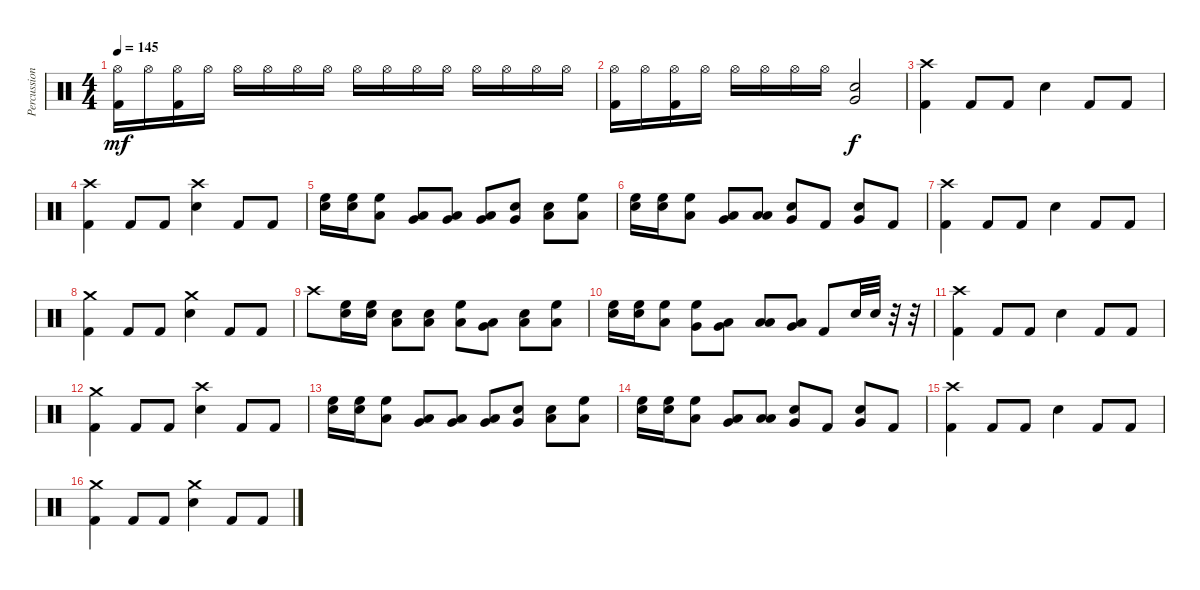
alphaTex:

\track ("Percussion" "Percussion") {instrument percussion}
\staff {score}
\articulation defaults
\ts (4 4)
\tempo 145
\clef neutral
\ks c
("Hi-Hat (open)" "Kick (hit) 2").16{dy mf} "Hi-Hat (open)".16 ("Hi-Hat (open)" "Kick (hit) 2").16 "Hi-Hat (open)".16 "Hi-Hat (open)".16 "Hi-Hat (open)".16 "Hi-Hat (open)".16 "Hi-Hat (open)".16 "Hi-Hat (open)".16 "Hi-Hat (open)".16 "Hi-Hat (open)".16 "Hi-Hat (open)".16 "Hi-Hat (open)".16 "Hi-Hat (open)".16 "Hi-Hat (open)".16 "Hi-Hat (open)".16 |
("Hi-Hat (open)" "Kick (hit) 2").16 "Hi-Hat (open)".16 ("Hi-Hat (open)" "Kick (hit) 2").16 "Hi-Hat (open)".16 "Hi-Hat (open)".16 "Hi-Hat (open)".16 "Hi-Hat (open)".16 "Hi-Hat (open)".16 ("Very Low Tom (hit)" "Snare (hit) 2").2{dy f} |
("Crash high (hit)" "Kick (hit) 2").4 "Kick (hit) 2".8 "Kick (hit) 2".8 "Snare (hit) 2".4 "Kick (hit) 2".8 "Kick (hit) 2".8 |
("Crash high (hit)" "Kick (hit) 2").4 "Kick (hit) 2".8 "Kick (hit) 2".8 ("Crash high (hit)" "Snare (hit) 2").4 "Kick (hit) 2".8 "Kick (hit) 2".8 |
("Snare (hit) 2" "High Floor Tom (hit)").16 ("Snare (hit) 2" "High Floor Tom (hit)").16 ("Low Tom (hit)" "High Floor Tom (hit)").8 ("Very Low Tom (hit)" "Low Tom (hit)").8 ("Low Tom (hit)" "Very Low Tom (hit)").8 ("Low Tom (hit)" "Very Low Tom (hit)").8 ("Snare (hit) 2" "Very Low Tom (hit)").8 ("Snare (hit) 2" "Low Tom (hit)").8 ("Low Tom (hit)" "High Floor Tom (hit)").8 |
("Snare (hit) 2" "High Floor Tom (hit)").16 ("Snare (hit) 2" "High Floor Tom (hit)").16 ("Low Tom (hit)" "High Floor Tom (hit)").8 ("Low Tom (hit)" "Very Low Tom (hit)").8 ("Low Tom (hit)" "Low Floor Tom (hit)").8 ("Snare (hit) 2" "Very Low Tom (hit)").8 "Kick (hit) 2".8 ("Snare (hit) 2" "Very Low Tom (hit)").8 "Kick (hit) 2".8 |
("Crash high (hit)" "Kick (hit) 2").4 "Kick (hit) 2".8 "Kick (hit) 2".8 "Snare (hit) 2".4 "Kick (hit) 2".8 "Kick (hit) 2".8 |
("Crash medium (hit)" "Kick (hit) 2").4 "Kick (hit) 2".8 "Kick (hit) 2".8 ("Crash medium (hit)" "Snare (hit) 2").4 "Kick (hit) 2".8 "Kick (hit) 2".8 |
"Crash high (hit)".8 ("High Floor Tom (hit)" "Snare (hit) 2").16 ("High Floor Tom (hit)" "Snare (hit) 2").16 ("Low Tom (hit)" "Snare (hit) 2").8 ("Low Tom (hit)" "Snare (hit) 2").8 ("High Floor Tom (hit)" "Low Floor Tom (hit)").8 ("Low Tom (hit)" "Very Low Tom (hit)").8 ("Low Floor Tom (hit)" "Snare (hit) 2").8 ("High Floor Tom (hit)" "Low Tom (hit)").8 |
("High Floor Tom (hit)" "Snare (hit) 2").16 ("High Floor Tom (hit)" "Snare (hit) 2").16 ("High Floor Tom (hit)" "Low Tom (hit)").8 ("Very Low Tom (hit)" "High Floor Tom (hit)").8 ("Very Low Tom (hit)" "Low Tom (hit)").8 ("Low Tom (hit)" "Low Floor Tom (hit)").8 ("Very Low Tom (hit)" "Low Floor Tom (hit)").8 "Kick (hit) 2".8 "Snare (hit) 2".32 "Snare (hit) 2".32 r.32 r.32 |
("Crash high (hit)" "Kick (hit) 2").4 "Kick (hit) 2".8 "Kick (hit) 2".8 "Snare (hit) 2".4 "Kick (hit) 2".8 "Kick (hit) 2".8 |
("Crash medium (hit)" "Kick (hit) 2").4 "Kick (hit) 2".8 "Kick (hit) 2".8 ("Crash high (hit)" "Snare (hit) 2").4 "Kick (hit) 2".8 "Kick (hit) 2".8 |
("Snare (hit) 2" "High Floor Tom (hit)").16 ("Snare (hit) 2" "High Floor Tom (hit)").16 ("Low Tom (hit)" "High Floor Tom (hit)").8 ("Very Low Tom (hit)" "Low Tom (hit)").8 ("Low Tom (hit)" "Very Low Tom (hit)").8 ("Low Tom (hit)" "Very Low Tom (hit)").8 ("Snare (hit) 2" "Very Low Tom (hit)").8 ("Snare (hit) 2" "Low Tom (hit)").8 ("Low Tom (hit)" "High Floor Tom (hit)").8 |
("Snare (hit) 2" "High Floor Tom (hit)").16 ("Snare (hit) 2" "High Floor Tom (hit)").16 ("Low Tom (hit)" "High Floor Tom (hit)").8 ("Low Tom (hit)" "Very Low Tom (hit)").8 ("Low Tom (hit)" "Low Floor Tom (hit)").8 ("Snare (hit) 2" "Very Low Tom (hit)").8 "Kick (hit) 2".8 ("Snare (hit) 2" "Very Low Tom (hit)").8 "Kick (hit) 2".8 |
("Crash high (hit)" "Kick (hit) 2").4 "Kick (hit) 2".8 "Kick (hit) 2".8 "Snare (hit) 2".4 "Kick (hit) 2".8 "Kick (hit) 2".8 |
("Crash medium (hit)" "Kick (hit) 2").4 "Kick (hit) 2".8 "Kick (hit) 2".8 ("Crash medium (hit)" "Snare (hit) 2").4 "Kick (hit) 2".8 "Kick (hit) 2".8
